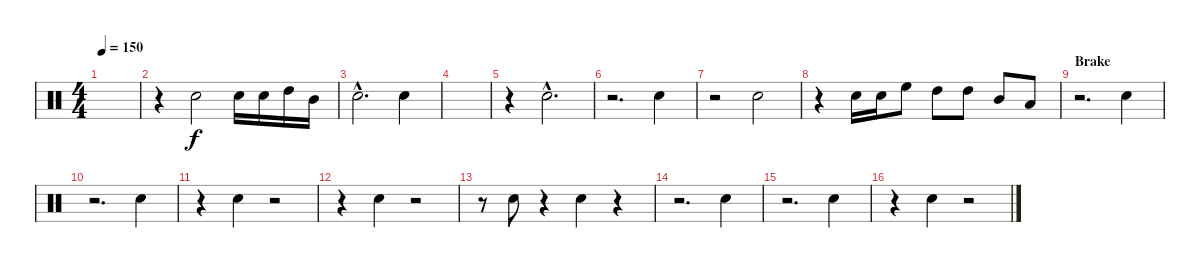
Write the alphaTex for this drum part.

\track "" {instrument percussion}
\staff {score}
\articulation defaults
\ts (4 4)
\tempo 150
\clef neutral
\ks c
|
r.4 "Electric Snare (hit)".2 "Electric Snare (hit)".16 "Electric Snare (hit)".16 "High Tom (hit)".16 "Mid Tom (hit)".16 |
"Electric Snare (hit)"{hac}.2{d} "Electric Snare (hit)".4 |
|
r.4 "Electric Snare (hit)"{hac}.2{d} |
r.2{d} "Electric Snare (hit)".4 |
r.2 "Electric Snare (hit)".2 |
r.4 "Electric Snare (hit)".16 "Electric Snare (hit)".16 "High Floor Tom (hit)".8 "High Tom (hit)".8 "High Tom (hit)".8 "Mid Tom (hit)".8 "Low Tom (hit)".8 |
\section ("" "Brake")
r.2{d} "Electric Snare (hit)".4 |
r.2{d} "Electric Snare (hit)".4 |
r.4 "Electric Snare (hit)".4 r.2 |
r.4 "Electric Snare (hit)".4 r.2 |
r.8 "Electric Snare (hit)".8 r.4 "Electric Snare (hit)".4 r.4 |
r.2{d} "Electric Snare (hit)".4 |
r.2{d} "Electric Snare (hit)".4 |
r.4 "Electric Snare (hit)".4 r.2
